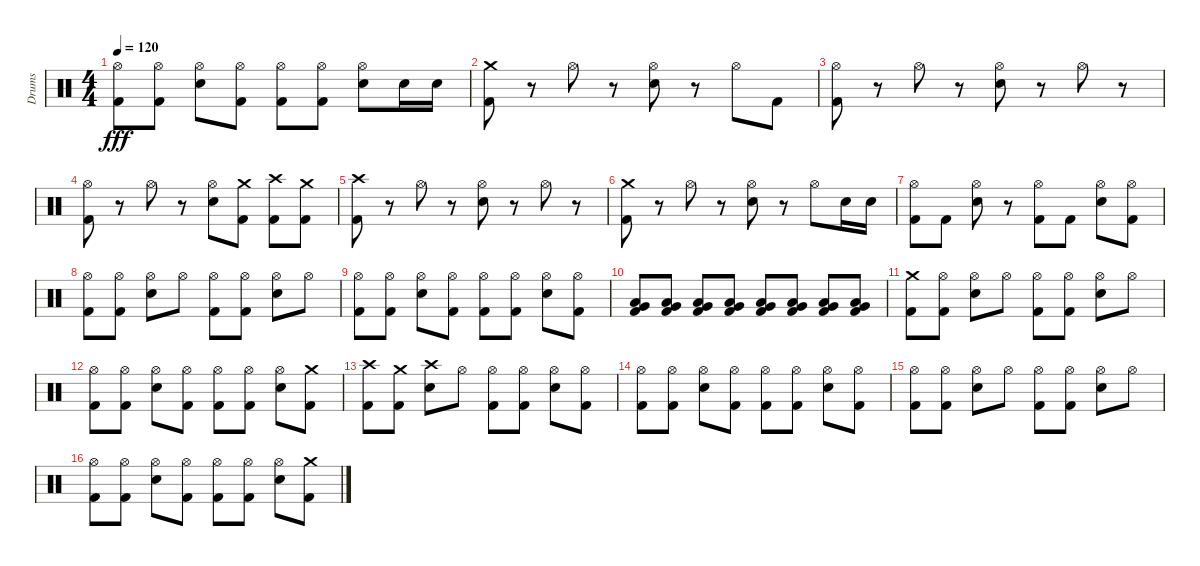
\track ("Drums" "Drums") {instrument percussion}
\staff {score}
\articulation defaults
\ts (4 4)
\tempo 120
\clef neutral
\ks c
("Hi-Hat (open)" "Kick (hit) 2").8{dy fff} ("Hi-Hat (open)" "Kick (hit) 2").8 ("Hi-Hat (open)" "Electric Snare (hit)").8 ("Hi-Hat (open)" "Kick (hit) 2").8 ("Hi-Hat (open)" "Kick (hit) 2").8 ("Hi-Hat (open)" "Kick (hit) 2").8 ("Hi-Hat (open)" "Electric Snare (hit)").8 "Electric Snare (hit)".16 "Electric Snare (hit)".16 |
("Crash medium (hit)" "Kick (hit) 2").8 r.8 "Hi-Hat (open)".8 r.8 ("Hi-Hat (open)" "Electric Snare (hit)").8 r.8 "Hi-Hat (open)".8 "Kick (hit) 2".8 |
("Hi-Hat (open)" "Kick (hit) 2").8 r.8 "Hi-Hat (open)".8 r.8 ("Hi-Hat (open)" "Electric Snare (hit)").8 r.8 "Hi-Hat (open)".8 r.8 |
("Hi-Hat (open)" "Kick (hit) 2").8 r.8 "Hi-Hat (open)".8 r.8 ("Hi-Hat (open)" "Electric Snare (hit)").8 ("Kick (hit) 2" "Crash medium (hit)").8 ("Kick (hit) 2" "Crash high (hit)").8 ("Kick (hit) 2" "Crash medium (hit)").8 |
("Kick (hit) 2" "Crash high (hit)").8 r.8 "Hi-Hat (open)".8 r.8 ("Hi-Hat (open)" "Electric Snare (hit)").8 r.8 "Hi-Hat (open)".8 r.8 |
("Kick (hit) 2" "Crash medium (hit)").8 r.8 "Hi-Hat (open)".8 r.8 ("Hi-Hat (open)" "Electric Snare (hit)").8 r.8 "Hi-Hat (open)".8 "Electric Snare (hit)".16 "Electric Snare (hit)".16 |
("Hi-Hat (open)" "Kick (hit) 2").8 "Kick (hit) 2".8 ("Hi-Hat (open)" "Electric Snare (hit)").8 r.8 ("Hi-Hat (open)" "Kick (hit) 2").8 "Kick (hit) 2".8 ("Hi-Hat (open)" "Electric Snare (hit)").8 ("Kick (hit) 2" "Hi-Hat (open)").8 |
("Hi-Hat (open)" "Kick (hit) 2").8 ("Hi-Hat (open)" "Kick (hit) 2").8 ("Hi-Hat (open)" "Electric Snare (hit)").8 "Hi-Hat (open)".8 ("Hi-Hat (open)" "Kick (hit) 2").8 ("Hi-Hat (open)" "Kick (hit) 2").8 ("Hi-Hat (open)" "Electric Snare (hit)").8 "Hi-Hat (open)".8 |
("Hi-Hat (open)" "Kick (hit) 2").8 ("Hi-Hat (open)" "Kick (hit) 2").8 ("Hi-Hat (open)" "Electric Snare (hit)").8 ("Hi-Hat (open)" "Kick (hit) 2").8 ("Hi-Hat (open)" "Kick (hit) 2").8 ("Hi-Hat (open)" "Kick (hit) 2").8 ("Hi-Hat (open)" "Electric Snare (hit)").8 ("Hi-Hat (open)" "Kick (hit) 2").8 |
("Low Tom (hit)" "Very Low Tom (hit)" "Kick (hit) 2").8 ("Kick (hit) 2" "Very Low Tom (hit)" "Low Tom (hit)").8 ("Kick (hit) 2" "Very Low Tom (hit)" "Low Tom (hit)").8 ("Kick (hit) 2" "Very Low Tom (hit)" "Low Tom (hit)").8 ("Kick (hit) 2" "Very Low Tom (hit)" "Low Tom (hit)").8 ("Kick (hit) 2" "Very Low Tom (hit)" "Low Tom (hit)").8 ("Kick (hit) 2" "Very Low Tom (hit)" "Low Tom (hit)").8 ("Kick (hit) 2" "Very Low Tom (hit)" "Low Tom (hit)").8 |
("Kick (hit) 2" "Crash medium (hit)").8 ("Hi-Hat (open)" "Kick (hit) 2").8 ("Hi-Hat (open)" "Electric Snare (hit)").8 "Hi-Hat (open)".8 ("Hi-Hat (open)" "Kick (hit) 2").8 ("Hi-Hat (open)" "Kick (hit) 2").8 ("Hi-Hat (open)" "Electric Snare (hit)").8 "Hi-Hat (open)".8 |
("Hi-Hat (open)" "Kick (hit) 2").8 ("Hi-Hat (open)" "Kick (hit) 2").8 ("Hi-Hat (open)" "Electric Snare (hit)").8 ("Kick (hit) 2" "Hi-Hat (open)").8 ("Hi-Hat (open)" "Kick (hit) 2").8 ("Hi-Hat (open)" "Kick (hit) 2").8 ("Hi-Hat (open)" "Electric Snare (hit)").8 ("Crash medium (hit)" "Kick (hit) 2").8 |
("Kick (hit) 2" "Crash high (hit)").8 ("Crash medium (hit)" "Kick (hit) 2").8 ("Crash high (hit)" "Electric Snare (hit)").8 "Hi-Hat (open)".8 ("Hi-Hat (open)" "Kick (hit) 2").8 ("Hi-Hat (open)" "Kick (hit) 2").8 ("Hi-Hat (open)" "Electric Snare (hit)").8 ("Hi-Hat (open)" "Kick (hit) 2").8 |
("Hi-Hat (open)" "Kick (hit) 2").8 ("Hi-Hat (open)" "Kick (hit) 2").8 ("Hi-Hat (open)" "Electric Snare (hit)").8 ("Hi-Hat (open)" "Kick (hit) 2").8 ("Hi-Hat (open)" "Kick (hit) 2").8 ("Hi-Hat (open)" "Kick (hit) 2").8 ("Hi-Hat (open)" "Electric Snare (hit)").8 ("Hi-Hat (open)" "Kick (hit) 2").8 |
("Kick (hit) 2" "Hi-Hat (open)").8 ("Hi-Hat (open)" "Kick (hit) 2").8 ("Hi-Hat (open)" "Electric Snare (hit)").8 "Hi-Hat (open)".8 ("Hi-Hat (open)" "Kick (hit) 2").8 ("Hi-Hat (open)" "Kick (hit) 2").8 ("Hi-Hat (open)" "Electric Snare (hit)").8 "Hi-Hat (open)".8 |
("Hi-Hat (open)" "Kick (hit) 2").8 ("Hi-Hat (open)" "Kick (hit) 2").8 ("Hi-Hat (open)" "Electric Snare (hit)").8 ("Kick (hit) 2" "Hi-Hat (open)").8 ("Hi-Hat (open)" "Kick (hit) 2").8 ("Hi-Hat (open)" "Kick (hit) 2").8 ("Hi-Hat (open)" "Electric Snare (hit)").8 ("Crash medium (hit)" "Kick (hit) 2").8
